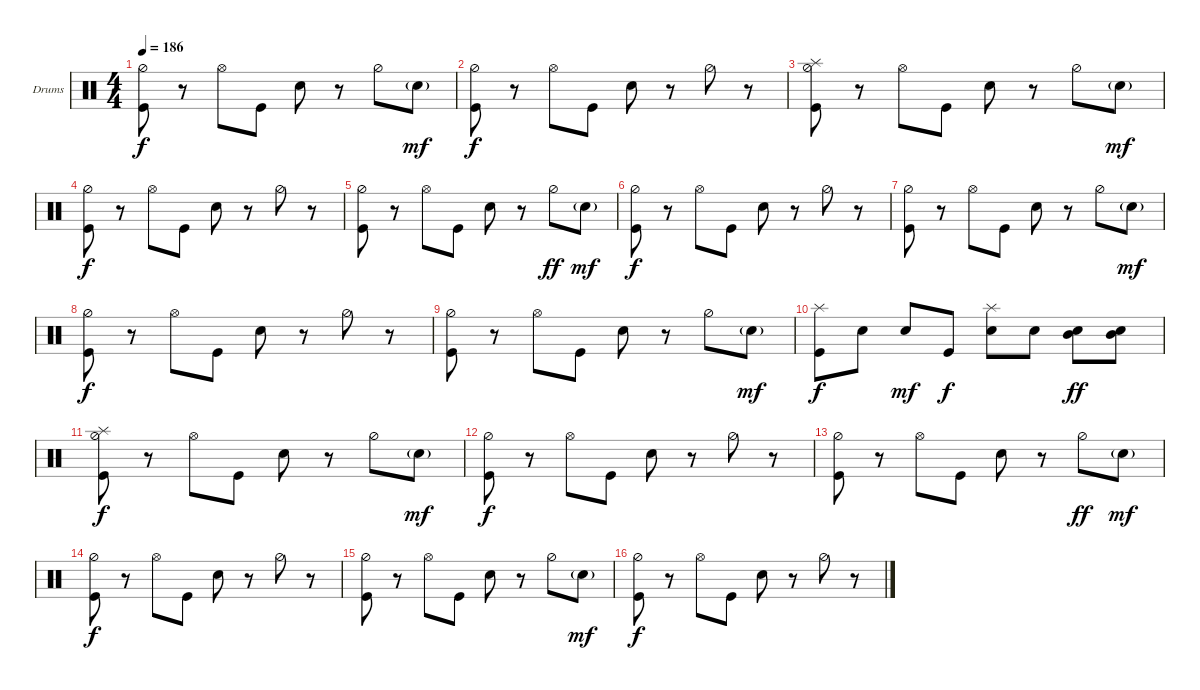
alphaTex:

\defaultSystemsLayout 4
\bracketExtendMode groupsimilarinstruments
\firstSystemTrackNameOrientation horizontal
\otherSystemsTrackNameOrientation horizontal
\track ("Drumkit" "Drums") {instrument percussion}
\staff {score}
\articulation defaults
\ts (4 4)
\tempo 186
\clef neutral
\ks c
("Hi-Hat (half)" "Kick (hit)").8{dy f} r.8 "Hi-Hat (open)".8 "Kick (hit)".8 "Snare (hit) 2".8 r.8 "Hi-Hat (half)".8 "Snare (hit) 2"{g}.8{dy mf} |
("Hi-Hat (half)" "Kick (hit)").8{dy f} r.8 "Hi-Hat (open)".8 "Kick (hit)".8 "Snare (hit) 2".8 r.8 "Hi-Hat (half)".8 r.8 |
("Hi-Hat (half)" "Kick (hit)" "Splash (hit)").8 r.8 "Hi-Hat (open)".8 "Kick (hit)".8 "Snare (hit) 2".8 r.8 "Hi-Hat (half)".8 "Snare (hit) 2"{g}.8{dy mf} |
("Hi-Hat (half)" "Kick (hit)").8{dy f} r.8 "Hi-Hat (open)".8 "Kick (hit)".8 "Snare (hit) 2".8 r.8 "Hi-Hat (half)".8 r.8 |
("Hi-Hat (half)" "Kick (hit)").8 r.8 "Hi-Hat (open)".8 "Kick (hit)".8 "Snare (hit) 2".8 r.8 "Hi-Hat (half)".8{dy ff} "Snare (hit) 2"{g}.8{dy mf} |
("Hi-Hat (half)" "Kick (hit)").8{dy f} r.8 "Hi-Hat (open)".8 "Kick (hit)".8 "Snare (hit) 2".8 r.8 "Hi-Hat (half)".8 r.8 |
("Hi-Hat (half)" "Kick (hit)").8 r.8 "Hi-Hat (open)".8 "Kick (hit)".8 "Snare (hit) 2".8 r.8 "Hi-Hat (half)".8 "Snare (hit) 2"{g}.8{dy mf} |
("Hi-Hat (half)" "Kick (hit)").8{dy f} r.8 "Hi-Hat (open)".8 "Kick (hit)".8 "Snare (hit) 2".8 r.8 "Hi-Hat (half)".8 r.8 |
("Hi-Hat (half)" "Kick (hit)").8 r.8 "Hi-Hat (open)".8 "Kick (hit)".8 "Snare (hit) 2".8 r.8 "Hi-Hat (half)".8 "Snare (hit) 2"{g}.8{dy mf} |
("Kick (hit)" "Splash (hit)").8{dy f} "Snare (hit) 2".8 "Snare (hit) 2".8{dy mf} "Kick (hit)".8{dy f} ("Snare (hit) 2" "Splash (hit)").8 "Snare (hit) 2".8 ("Mid Tom (hit)" "Snare (hit) 2").8{dy ff} ("Mid Tom (hit)" "Snare (hit) 2").8 |
("Hi-Hat (half)" "Kick (hit)" "Splash (hit)").8{dy f} r.8 "Hi-Hat (open)".8 "Kick (hit)".8 "Snare (hit) 2".8 r.8 "Hi-Hat (half)".8 "Snare (hit) 2"{g}.8{dy mf} |
("Hi-Hat (half)" "Kick (hit)").8{dy f} r.8 "Hi-Hat (open)".8 "Kick (hit)".8 "Snare (hit) 2".8 r.8 "Hi-Hat (half)".8 r.8 |
("Hi-Hat (half)" "Kick (hit)").8 r.8 "Hi-Hat (open)".8 "Kick (hit)".8 "Snare (hit) 2".8 r.8 "Hi-Hat (half)".8{dy ff} "Snare (hit) 2"{g}.8{dy mf} |
("Hi-Hat (half)" "Kick (hit)").8{dy f} r.8 "Hi-Hat (open)".8 "Kick (hit)".8 "Snare (hit) 2".8 r.8 "Hi-Hat (half)".8 r.8 |
("Hi-Hat (half)" "Kick (hit)").8 r.8 "Hi-Hat (open)".8 "Kick (hit)".8 "Snare (hit) 2".8 r.8 "Hi-Hat (half)".8 "Snare (hit) 2"{g}.8{dy mf} |
("Hi-Hat (half)" "Kick (hit)").8{dy f} r.8 "Hi-Hat (open)".8 "Kick (hit)".8 "Snare (hit) 2".8 r.8 "Hi-Hat (half)".8 r.8
